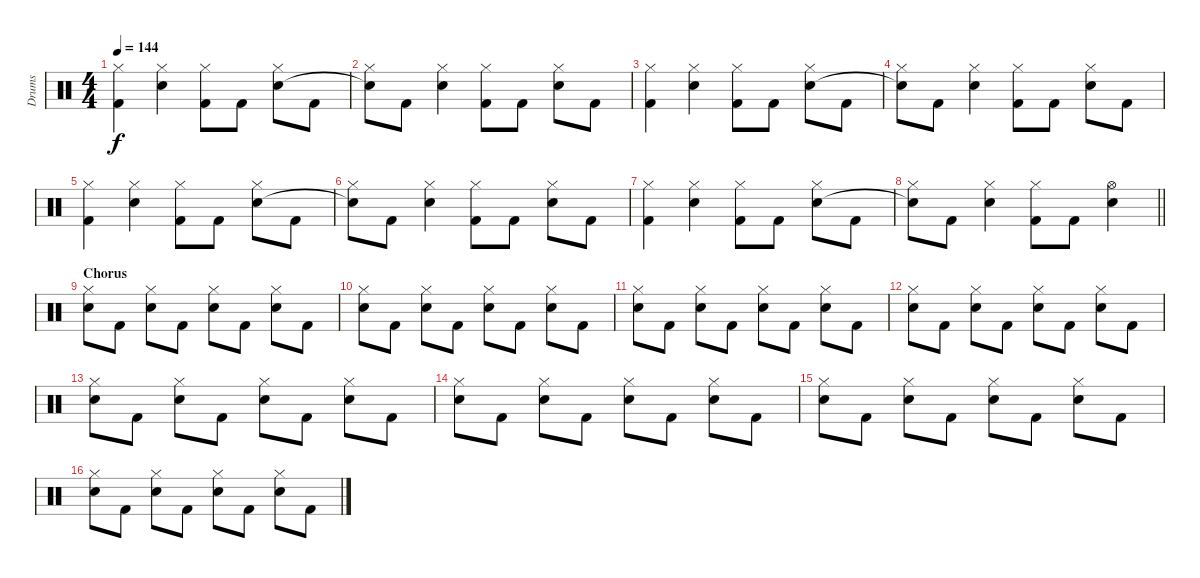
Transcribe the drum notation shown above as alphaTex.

\track ("Drums" "Drums") {instrument percussion}
\staff {score}
\articulation defaults
\ts (4 4)
\section ("" "")
\tempo 144
\clef neutral
\ks c
("Hi-Hat (closed)" "Kick (hit) 2").4{dy f} ("Hi-Hat (closed)" "Electric Snare (hit)").4 ("Hi-Hat (closed)" "Kick (hit) 2").8 "Kick (hit) 2".8 ("Hi-Hat (closed)" "Electric Snare (hit)").8 "Kick (hit) 2".8 |
("Hi-Hat (closed)" "Snare (hit)"{t}).8 "Kick (hit) 2".8 ("Hi-Hat (closed)" "Electric Snare (hit)").4 ("Hi-Hat (closed)" "Kick (hit) 2").8 "Kick (hit) 2".8 ("Hi-Hat (closed)" "Electric Snare (hit)").8 "Kick (hit) 2".8 |
("Hi-Hat (closed)" "Kick (hit) 2").4 ("Hi-Hat (closed)" "Electric Snare (hit)").4 ("Hi-Hat (closed)" "Kick (hit) 2").8 "Kick (hit) 2".8 ("Hi-Hat (closed)" "Electric Snare (hit)").8 "Kick (hit) 2".8 |
("Hi-Hat (closed)" "Snare (hit)"{t}).8 "Kick (hit) 2".8 ("Hi-Hat (closed)" "Electric Snare (hit)").4 ("Hi-Hat (closed)" "Kick (hit) 2").8 "Kick (hit) 2".8 ("Hi-Hat (closed)" "Electric Snare (hit)").8 "Kick (hit) 2".8 |
("Hi-Hat (closed)" "Kick (hit) 2").4 ("Hi-Hat (closed)" "Electric Snare (hit)").4 ("Hi-Hat (closed)" "Kick (hit) 2").8 "Kick (hit) 2".8 ("Hi-Hat (closed)" "Electric Snare (hit)").8 "Kick (hit) 2".8 |
("Hi-Hat (closed)" "Snare (hit)"{t}).8 "Kick (hit) 2".8 ("Hi-Hat (closed)" "Electric Snare (hit)").4 ("Hi-Hat (closed)" "Kick (hit) 2").8 "Kick (hit) 2".8 ("Hi-Hat (closed)" "Electric Snare (hit)").8 "Kick (hit) 2".8 |
("Hi-Hat (closed)" "Kick (hit) 2").4 ("Hi-Hat (closed)" "Electric Snare (hit)").4 ("Hi-Hat (closed)" "Kick (hit) 2").8 "Kick (hit) 2".8 ("Hi-Hat (closed)" "Electric Snare (hit)").8 "Kick (hit) 2".8 |
\barLineRight lightlight
("Hi-Hat (closed)" "Snare (hit)"{t}).8 "Kick (hit) 2".8 ("Hi-Hat (closed)" "Electric Snare (hit)").4 ("Hi-Hat (closed)" "Kick (hit) 2").8 "Kick (hit) 2".8 ("Hi-Hat (open)" "Electric Snare (hit)").4 |
\section ("" "Chorus")
("Hi-Hat (closed)" "Electric Snare (hit)").8 "Kick (hit) 2".8 ("Hi-Hat (closed)" "Electric Snare (hit)").8 "Kick (hit) 2".8 ("Hi-Hat (closed)" "Electric Snare (hit)").8 "Kick (hit) 2".8 ("Hi-Hat (closed)" "Electric Snare (hit)").8 "Kick (hit) 2".8 |
("Hi-Hat (closed)" "Electric Snare (hit)").8 "Kick (hit) 2".8 ("Hi-Hat (closed)" "Electric Snare (hit)").8 "Kick (hit) 2".8 ("Hi-Hat (closed)" "Electric Snare (hit)").8 "Kick (hit) 2".8 ("Hi-Hat (closed)" "Electric Snare (hit)").8 "Kick (hit) 2".8 |
("Hi-Hat (closed)" "Electric Snare (hit)").8 "Kick (hit) 2".8 ("Hi-Hat (closed)" "Electric Snare (hit)").8 "Kick (hit) 2".8 ("Hi-Hat (closed)" "Electric Snare (hit)").8 "Kick (hit) 2".8 ("Hi-Hat (closed)" "Electric Snare (hit)").8 "Kick (hit) 2".8 |
("Hi-Hat (closed)" "Electric Snare (hit)").8 "Kick (hit) 2".8 ("Hi-Hat (closed)" "Electric Snare (hit)").8 "Kick (hit) 2".8 ("Hi-Hat (closed)" "Electric Snare (hit)").8 "Kick (hit) 2".8 ("Hi-Hat (closed)" "Electric Snare (hit)").8 "Kick (hit) 2".8 |
("Hi-Hat (closed)" "Electric Snare (hit)").8 "Kick (hit) 2".8 ("Hi-Hat (closed)" "Electric Snare (hit)").8 "Kick (hit) 2".8 ("Hi-Hat (closed)" "Electric Snare (hit)").8 "Kick (hit) 2".8 ("Hi-Hat (closed)" "Electric Snare (hit)").8 "Kick (hit) 2".8 |
("Hi-Hat (closed)" "Electric Snare (hit)").8 "Kick (hit) 2".8 ("Hi-Hat (closed)" "Electric Snare (hit)").8 "Kick (hit) 2".8 ("Hi-Hat (closed)" "Electric Snare (hit)").8 "Kick (hit) 2".8 ("Hi-Hat (closed)" "Electric Snare (hit)").8 "Kick (hit) 2".8 |
("Hi-Hat (closed)" "Electric Snare (hit)").8 "Kick (hit) 2".8 ("Hi-Hat (closed)" "Electric Snare (hit)").8 "Kick (hit) 2".8 ("Hi-Hat (closed)" "Electric Snare (hit)").8 "Kick (hit) 2".8 ("Hi-Hat (closed)" "Electric Snare (hit)").8 "Kick (hit) 2".8 |
("Hi-Hat (closed)" "Electric Snare (hit)").8 "Kick (hit) 2".8 ("Hi-Hat (closed)" "Electric Snare (hit)").8 "Kick (hit) 2".8 ("Hi-Hat (closed)" "Electric Snare (hit)").8 "Kick (hit) 2".8 ("Hi-Hat (closed)" "Electric Snare (hit)").8 "Kick (hit) 2".8
